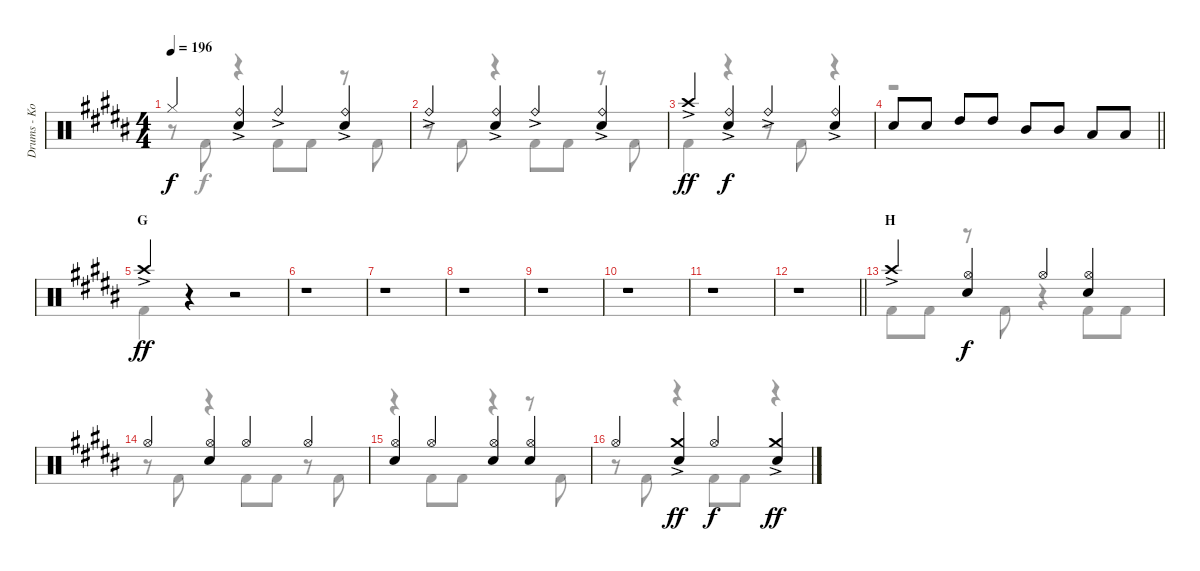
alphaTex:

\track ("Drums - Koji Hasegawa" "Drums - Ko") {instrument percussion}
\staff {score}
\articulation defaults
\voice
\ts (4 4)
\tempo 196
\clef neutral
\ks b "Hi-Hat (closed)".4{dy f}
("Ride (bell)"{ac} "Snare (hit) 2").4 "Ride (bell)"{ac}.4 ("Ride (bell)"{ac} "Snare (hit) 2").4 |
"Ride (bell)"{ac}.4 ("Ride (bell)"{ac} "Snare (hit) 2").4 "Ride (bell)"{ac}.4 ("Ride (bell)"{ac} "Snare (hit) 2").4 |
"Crash high (hit)"{ac}.4{dy ff} ("Ride (bell)"{ac} "Snare (hit) 2").4{dy f} "Ride (bell)"{ac}.4 ("Ride (bell)"{ac} "Snare (hit) 2").4 |
\barLineRight lightlight "Snare (hit) 2".8 "Snare (hit) 2".8 "High Tom (hit)".8 "High Tom (hit)".8 "Mid Tom (hit)".8 "Mid Tom (hit)".8 "Low Tom (hit)".8 "Low Tom (hit)".8
|
\section ("" "G")
"Crash high (hit)"{ac}.4{dy ff} r.4 r.2 |
r.1 |
r.1 |
r.1 |
r.1 |
r.1 |
r.1 |
\barLineRight lightlight
r.1 |
\section ("" "H")
"Crash high (hit)"{ac}.4 ("Hi-Hat (open)" "Snare (hit) 2").4{dy f} "Hi-Hat (open)".4 ("Hi-Hat (open)" "Snare (hit) 2").4 |
"Hi-Hat (open)".4 ("Hi-Hat (open)" "Snare (hit) 2").4 "Hi-Hat (open)".4 "Hi-Hat (open)".4 |
("Hi-Hat (open)" "Snare (hit) 2").4 "Hi-Hat (open)".4 ("Hi-Hat (open)" "Snare (hit) 2").4 ("Hi-Hat (open)" "Snare (hit) 2").4 |
"Hi-Hat (open)".4 ("Crash medium (hit)"{ac} "Snare (hit) 2").4{dy ff} "Hi-Hat (open)".4{dy f} ("Crash medium (hit)"{ac} "Snare (hit) 2").4{dy ff}
\voice
\clef neutral
\ottava regular
\simile none
\ks b
r.8{dy f} "Kick (hit) 2".8 r.4 "Kick (hit) 2".8 "Kick (hit) 2".8 r.8 "Kick (hit) 2".8 |
r.8 "Kick (hit) 2".8 r.4 "Kick (hit) 2".8 "Kick (hit) 2".8 r.8 "Kick (hit) 2".8 |
"Kick (hit) 2".4 r.4 r.8 "Kick (hit) 2".8 r.4 |
\barLineRight lightlight
r.1 |
"Kick (hit) 2".4 r.4 r.2 |
|
|
|
|
|
|
\barLineRight lightlight
|
"Kick (hit) 2".8 "Kick (hit) 2".8 r.8 "Kick (hit) 2".8 r.4 "Kick (hit) 2".8 "Kick (hit) 2".8 |
r.8 "Kick (hit) 2".8 r.4 "Kick (hit) 2".8 "Kick (hit) 2".8 r.8 "Kick (hit) 2".8 |
r.4 "Kick (hit) 2".8 "Kick (hit) 2".8 r.4 r.8 "Kick (hit) 2".8 |
r.8 "Kick (hit) 2".8 r.4 "Kick (hit) 2".8 "Kick (hit) 2".8 r.4
